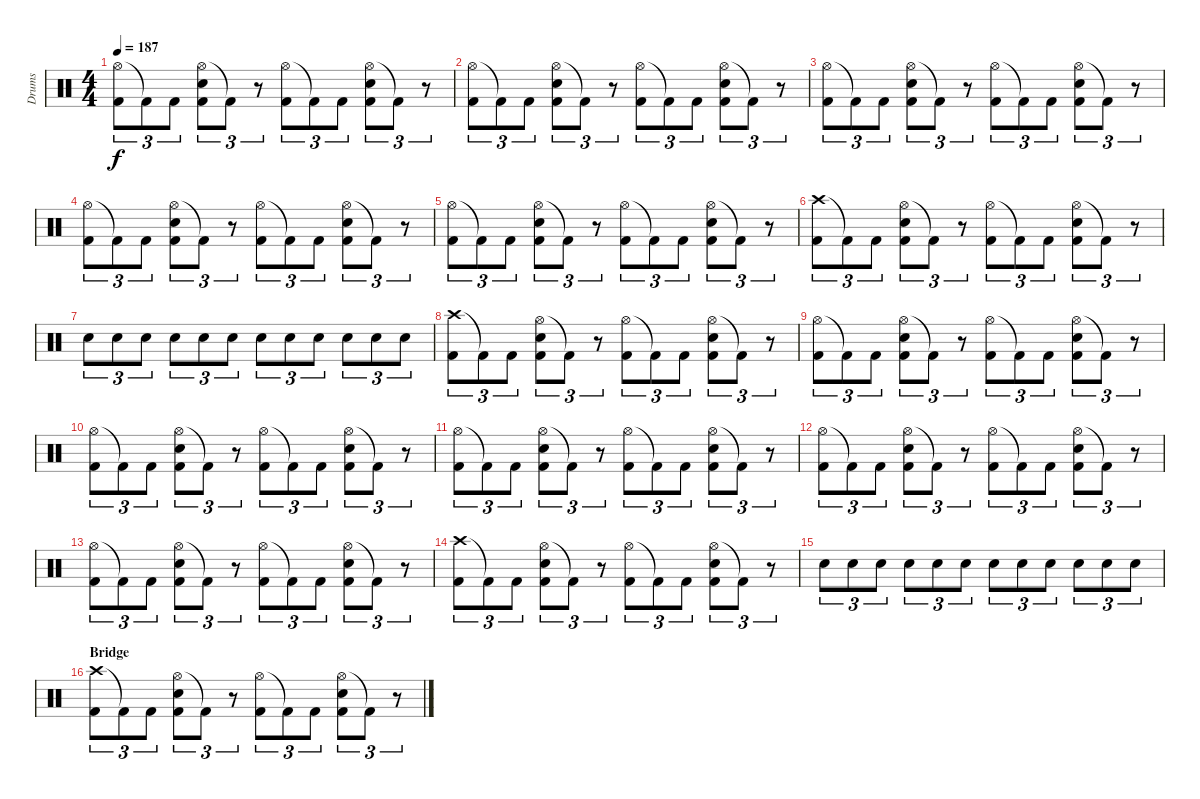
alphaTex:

\track ("Drums" "Drums") {instrument percussion}
\staff {score}
\articulation defaults
\ts (4 4)
\tempo 187
\clef neutral
\ks c
("Hi-Hat (open)" "Kick (hit) 2").8{tu (3 2) dy f} "Kick (hit) 2"{t}.8{tu (3 2)} "Kick (hit) 2".8{tu (3 2)} ("Hi-Hat (open)" "Snare (hit) 2" "Kick (hit) 2").8{tu (3 2)} "Kick (hit) 2"{t}.8{tu (3 2)} r.8{tu (3 2)} ("Hi-Hat (open)" "Kick (hit) 2").8{tu (3 2)} "Kick (hit) 2"{t}.8{tu (3 2)} "Kick (hit) 2".8{tu (3 2)} ("Hi-Hat (open)" "Snare (hit) 2" "Kick (hit) 2").8{tu (3 2)} "Kick (hit) 2"{t}.8{tu (3 2)} r.8{tu (3 2)} |
("Hi-Hat (open)" "Kick (hit) 2").8{tu (3 2)} "Kick (hit) 2"{t}.8{tu (3 2)} "Kick (hit) 2".8{tu (3 2)} ("Hi-Hat (open)" "Snare (hit) 2" "Kick (hit) 2").8{tu (3 2)} "Kick (hit) 2"{t}.8{tu (3 2)} r.8{tu (3 2)} ("Hi-Hat (open)" "Kick (hit) 2").8{tu (3 2)} "Kick (hit) 2"{t}.8{tu (3 2)} "Kick (hit) 2".8{tu (3 2)} ("Hi-Hat (open)" "Snare (hit) 2" "Kick (hit) 2").8{tu (3 2)} "Kick (hit) 2"{t}.8{tu (3 2)} r.8{tu (3 2)} |
("Hi-Hat (open)" "Kick (hit) 2").8{tu (3 2)} "Kick (hit) 2"{t}.8{tu (3 2)} "Kick (hit) 2".8{tu (3 2)} ("Hi-Hat (open)" "Snare (hit) 2" "Kick (hit) 2").8{tu (3 2)} "Kick (hit) 2"{t}.8{tu (3 2)} r.8{tu (3 2)} ("Hi-Hat (open)" "Kick (hit) 2").8{tu (3 2)} "Kick (hit) 2"{t}.8{tu (3 2)} "Kick (hit) 2".8{tu (3 2)} ("Hi-Hat (open)" "Snare (hit) 2" "Kick (hit) 2").8{tu (3 2)} "Kick (hit) 2"{t}.8{tu (3 2)} r.8{tu (3 2)} |
("Hi-Hat (open)" "Kick (hit) 2").8{tu (3 2)} "Kick (hit) 2"{t}.8{tu (3 2)} "Kick (hit) 2".8{tu (3 2)} ("Hi-Hat (open)" "Snare (hit) 2" "Kick (hit) 2").8{tu (3 2)} "Kick (hit) 2"{t}.8{tu (3 2)} r.8{tu (3 2)} ("Hi-Hat (open)" "Kick (hit) 2").8{tu (3 2)} "Kick (hit) 2"{t}.8{tu (3 2)} "Kick (hit) 2".8{tu (3 2)} ("Hi-Hat (open)" "Snare (hit) 2" "Kick (hit) 2").8{tu (3 2)} "Kick (hit) 2"{t}.8{tu (3 2)} r.8{tu (3 2)} |
("Hi-Hat (open)" "Kick (hit) 2").8{tu (3 2)} "Kick (hit) 2"{t}.8{tu (3 2)} "Kick (hit) 2".8{tu (3 2)} ("Hi-Hat (open)" "Snare (hit) 2" "Kick (hit) 2").8{tu (3 2)} "Kick (hit) 2"{t}.8{tu (3 2)} r.8{tu (3 2)} ("Hi-Hat (open)" "Kick (hit) 2").8{tu (3 2)} "Kick (hit) 2"{t}.8{tu (3 2)} "Kick (hit) 2".8{tu (3 2)} ("Hi-Hat (open)" "Snare (hit) 2" "Kick (hit) 2").8{tu (3 2)} "Kick (hit) 2"{t}.8{tu (3 2)} r.8{tu (3 2)} |
("Crash high (hit)" "Kick (hit) 2").8{tu (3 2)} "Kick (hit) 2"{t}.8{tu (3 2)} "Kick (hit) 2".8{tu (3 2)} ("Hi-Hat (open)" "Snare (hit) 2" "Kick (hit) 2").8{tu (3 2)} "Kick (hit) 2"{t}.8{tu (3 2)} r.8{tu (3 2)} ("Hi-Hat (open)" "Kick (hit) 2").8{tu (3 2)} "Kick (hit) 2"{t}.8{tu (3 2)} "Kick (hit) 2".8{tu (3 2)} ("Hi-Hat (open)" "Snare (hit) 2" "Kick (hit) 2").8{tu (3 2)} "Kick (hit) 2"{t}.8{tu (3 2)} r.8{tu (3 2)} |
"Snare (hit) 2".8{tu (3 2)} "Snare (hit) 2".8{tu (3 2)} "Snare (hit) 2".8{tu (3 2)} "Snare (hit) 2".8{tu (3 2)} "Snare (hit) 2".8{tu (3 2)} "Snare (hit) 2".8{tu (3 2)} "Snare (hit) 2".8{tu (3 2)} "Snare (hit) 2".8{tu (3 2)} "Snare (hit) 2".8{tu (3 2)} "Snare (hit) 2".8{tu (3 2)} "Snare (hit) 2".8{tu (3 2)} "Snare (hit) 2".8{tu (3 2)} |
("Crash high (hit)" "Kick (hit) 2").8{tu (3 2)} "Kick (hit) 2"{t}.8{tu (3 2)} "Kick (hit) 2".8{tu (3 2)} ("Hi-Hat (open)" "Snare (hit) 2" "Kick (hit) 2").8{tu (3 2)} "Kick (hit) 2"{t}.8{tu (3 2)} r.8{tu (3 2)} ("Hi-Hat (open)" "Kick (hit) 2").8{tu (3 2)} "Kick (hit) 2"{t}.8{tu (3 2)} "Kick (hit) 2".8{tu (3 2)} ("Hi-Hat (open)" "Snare (hit) 2" "Kick (hit) 2").8{tu (3 2)} "Kick (hit) 2"{t}.8{tu (3 2)} r.8{tu (3 2)} |
("Hi-Hat (open)" "Kick (hit) 2").8{tu (3 2)} "Kick (hit) 2"{t}.8{tu (3 2)} "Kick (hit) 2".8{tu (3 2)} ("Hi-Hat (open)" "Snare (hit) 2" "Kick (hit) 2").8{tu (3 2)} "Kick (hit) 2"{t}.8{tu (3 2)} r.8{tu (3 2)} ("Hi-Hat (open)" "Kick (hit) 2").8{tu (3 2)} "Kick (hit) 2"{t}.8{tu (3 2)} "Kick (hit) 2".8{tu (3 2)} ("Hi-Hat (open)" "Snare (hit) 2" "Kick (hit) 2").8{tu (3 2)} "Kick (hit) 2"{t}.8{tu (3 2)} r.8{tu (3 2)} |
("Hi-Hat (open)" "Kick (hit) 2").8{tu (3 2)} "Kick (hit) 2"{t}.8{tu (3 2)} "Kick (hit) 2".8{tu (3 2)} ("Hi-Hat (open)" "Snare (hit) 2" "Kick (hit) 2").8{tu (3 2)} "Kick (hit) 2"{t}.8{tu (3 2)} r.8{tu (3 2)} ("Hi-Hat (open)" "Kick (hit) 2").8{tu (3 2)} "Kick (hit) 2"{t}.8{tu (3 2)} "Kick (hit) 2".8{tu (3 2)} ("Hi-Hat (open)" "Snare (hit) 2" "Kick (hit) 2").8{tu (3 2)} "Kick (hit) 2"{t}.8{tu (3 2)} r.8{tu (3 2)} |
("Hi-Hat (open)" "Kick (hit) 2").8{tu (3 2)} "Kick (hit) 2"{t}.8{tu (3 2)} "Kick (hit) 2".8{tu (3 2)} ("Hi-Hat (open)" "Snare (hit) 2" "Kick (hit) 2").8{tu (3 2)} "Kick (hit) 2"{t}.8{tu (3 2)} r.8{tu (3 2)} ("Hi-Hat (open)" "Kick (hit) 2").8{tu (3 2)} "Kick (hit) 2"{t}.8{tu (3 2)} "Kick (hit) 2".8{tu (3 2)} ("Hi-Hat (open)" "Snare (hit) 2" "Kick (hit) 2").8{tu (3 2)} "Kick (hit) 2"{t}.8{tu (3 2)} r.8{tu (3 2)} |
("Hi-Hat (open)" "Kick (hit) 2").8{tu (3 2)} "Kick (hit) 2"{t}.8{tu (3 2)} "Kick (hit) 2".8{tu (3 2)} ("Hi-Hat (open)" "Snare (hit) 2" "Kick (hit) 2").8{tu (3 2)} "Kick (hit) 2"{t}.8{tu (3 2)} r.8{tu (3 2)} ("Hi-Hat (open)" "Kick (hit) 2").8{tu (3 2)} "Kick (hit) 2"{t}.8{tu (3 2)} "Kick (hit) 2".8{tu (3 2)} ("Hi-Hat (open)" "Snare (hit) 2" "Kick (hit) 2").8{tu (3 2)} "Kick (hit) 2"{t}.8{tu (3 2)} r.8{tu (3 2)} |
("Hi-Hat (open)" "Kick (hit) 2").8{tu (3 2)} "Kick (hit) 2"{t}.8{tu (3 2)} "Kick (hit) 2".8{tu (3 2)} ("Hi-Hat (open)" "Snare (hit) 2" "Kick (hit) 2").8{tu (3 2)} "Kick (hit) 2"{t}.8{tu (3 2)} r.8{tu (3 2)} ("Hi-Hat (open)" "Kick (hit) 2").8{tu (3 2)} "Kick (hit) 2"{t}.8{tu (3 2)} "Kick (hit) 2".8{tu (3 2)} ("Hi-Hat (open)" "Snare (hit) 2" "Kick (hit) 2").8{tu (3 2)} "Kick (hit) 2"{t}.8{tu (3 2)} r.8{tu (3 2)} |
("Crash high (hit)" "Kick (hit) 2").8{tu (3 2)} "Kick (hit) 2"{t}.8{tu (3 2)} "Kick (hit) 2".8{tu (3 2)} ("Hi-Hat (open)" "Snare (hit) 2" "Kick (hit) 2").8{tu (3 2)} "Kick (hit) 2"{t}.8{tu (3 2)} r.8{tu (3 2)} ("Hi-Hat (open)" "Kick (hit) 2").8{tu (3 2)} "Kick (hit) 2"{t}.8{tu (3 2)} "Kick (hit) 2".8{tu (3 2)} ("Hi-Hat (open)" "Snare (hit) 2" "Kick (hit) 2").8{tu (3 2)} "Kick (hit) 2"{t}.8{tu (3 2)} r.8{tu (3 2)} |
"Snare (hit) 2".8{tu (3 2)} "Snare (hit) 2".8{tu (3 2)} "Snare (hit) 2".8{tu (3 2)} "Snare (hit) 2".8{tu (3 2)} "Snare (hit) 2".8{tu (3 2)} "Snare (hit) 2".8{tu (3 2)} "Snare (hit) 2".8{tu (3 2)} "Snare (hit) 2".8{tu (3 2)} "Snare (hit) 2".8{tu (3 2)} "Snare (hit) 2".8{tu (3 2)} "Snare (hit) 2".8{tu (3 2)} "Snare (hit) 2".8{tu (3 2)} |
\section ("" "Bridge")
("Crash high (hit)" "Kick (hit) 2").8{tu (3 2)} "Kick (hit) 2"{t}.8{tu (3 2)} "Kick (hit) 2".8{tu (3 2)} ("Hi-Hat (open)" "Snare (hit) 2" "Kick (hit) 2").8{tu (3 2)} "Kick (hit) 2"{t}.8{tu (3 2)} r.8{tu (3 2)} ("Hi-Hat (open)" "Kick (hit) 2").8{tu (3 2)} "Kick (hit) 2"{t}.8{tu (3 2)} "Kick (hit) 2".8{tu (3 2)} ("Hi-Hat (open)" "Snare (hit) 2" "Kick (hit) 2").8{tu (3 2)} "Kick (hit) 2"{t}.8{tu (3 2)} r.8{tu (3 2)}
